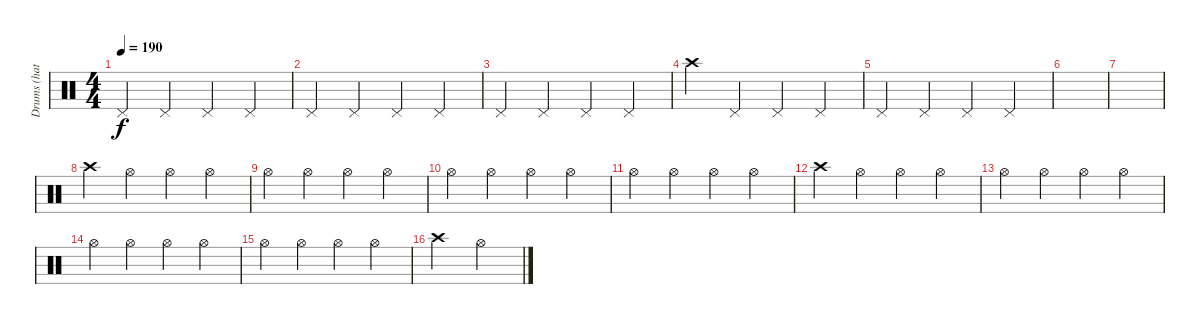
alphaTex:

\track ("Drums (hats)" "Drums (hat") {instrument percussion}
\staff {score}
\articulation defaults
\ts (4 4)
\tempo 190
\clef neutral
\ks c "Pedal Hi-Hat (hit)".4{dy f} "Pedal Hi-Hat (hit)".4 "Pedal Hi-Hat (hit)".4 "Pedal Hi-Hat (hit)".4
|
"Pedal Hi-Hat (hit)".4 "Pedal Hi-Hat (hit)".4 "Pedal Hi-Hat (hit)".4 "Pedal Hi-Hat (hit)".4 |
"Pedal Hi-Hat (hit)".4 "Pedal Hi-Hat (hit)".4 "Pedal Hi-Hat (hit)".4 "Pedal Hi-Hat (hit)".4 |
"Crash high (hit)".4 "Pedal Hi-Hat (hit)".4 "Pedal Hi-Hat (hit)".4 "Pedal Hi-Hat (hit)".4 |
"Pedal Hi-Hat (hit)".4 "Pedal Hi-Hat (hit)".4 "Pedal Hi-Hat (hit)".4 "Pedal Hi-Hat (hit)".4 |
|
|
"Crash high (hit)".4 "Hi-Hat (open)".4 "Hi-Hat (open)".4 "Hi-Hat (open)".4 |
"Hi-Hat (open)".4 "Hi-Hat (open)".4 "Hi-Hat (open)".4 "Hi-Hat (open)".4 |
"Hi-Hat (open)".4 "Hi-Hat (open)".4 "Hi-Hat (open)".4 "Hi-Hat (open)".4 |
"Hi-Hat (open)".4 "Hi-Hat (open)".4 "Hi-Hat (open)".4 "Hi-Hat (open)".4 |
"Crash high (hit)".4 "Hi-Hat (open)".4 "Hi-Hat (open)".4 "Hi-Hat (open)".4 |
"Hi-Hat (open)".4 "Hi-Hat (open)".4 "Hi-Hat (open)".4 "Hi-Hat (open)".4 |
"Hi-Hat (open)".4 "Hi-Hat (open)".4 "Hi-Hat (open)".4 "Hi-Hat (open)".4 |
"Hi-Hat (open)".4 "Hi-Hat (open)".4 "Hi-Hat (open)".4 "Hi-Hat (open)".4 |
"Crash high (hit)".2 "Hi-Hat (open)".2
